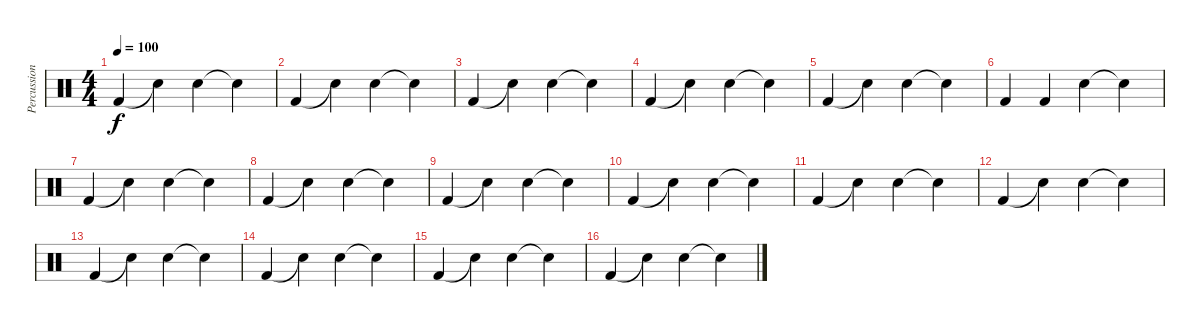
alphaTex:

\track ("Percussioni" "Percussion") {instrument percussion}
\staff {score}
\articulation defaults
\ts (4 4)
\tempo 100
\clef neutral
\ks c "Kick (hit) 2".4{dy f} "Snare (hit)"{t}.4 "Snare (hit) 2".4 "Snare (hit)"{t}.4
|
"Kick (hit) 2".4 "Snare (hit)"{t}.4 "Snare (hit) 2".4 "Snare (hit)"{t}.4 |
"Kick (hit) 2".4 "Snare (hit)"{t}.4 "Snare (hit) 2".4 "Snare (hit)"{t}.4 |
"Kick (hit) 2".4 "Snare (hit)"{t}.4 "Snare (hit) 2".4 "Snare (hit)"{t}.4 |
"Kick (hit) 2".4 "Snare (hit)"{t}.4 "Snare (hit) 2".4 "Snare (hit)"{t}.4 |
"Kick (hit) 2".4 "Kick (hit) 2".4 "Snare (hit) 2".4 "Snare (hit)"{t}.4 |
"Kick (hit) 2".4 "Snare (hit)"{t}.4 "Snare (hit) 2".4 "Snare (hit)"{t}.4 |
"Kick (hit) 2".4 "Snare (hit)"{t}.4 "Snare (hit) 2".4 "Snare (hit)"{t}.4 |
"Kick (hit) 2".4 "Snare (hit)"{t}.4 "Snare (hit) 2".4 "Snare (hit)"{t}.4 |
"Kick (hit) 2".4 "Snare (hit)"{t}.4 "Snare (hit) 2".4 "Snare (hit)"{t}.4 |
"Kick (hit) 2".4 "Snare (hit)"{t}.4 "Snare (hit) 2".4 "Snare (hit)"{t}.4 |
"Kick (hit) 2".4 "Snare (hit)"{t}.4 "Snare (hit) 2".4 "Snare (hit)"{t}.4 |
"Kick (hit) 2".4 "Snare (hit)"{t}.4 "Snare (hit) 2".4 "Snare (hit)"{t}.4 |
"Kick (hit) 2".4 "Snare (hit)"{t}.4 "Snare (hit) 2".4 "Snare (hit)"{t}.4 |
"Kick (hit) 2".4 "Snare (hit)"{t}.4 "Snare (hit) 2".4 "Snare (hit)"{t}.4 |
"Kick (hit) 2".4 "Snare (hit)"{t}.4 "Snare (hit) 2".4 "Snare (hit)"{t}.4
